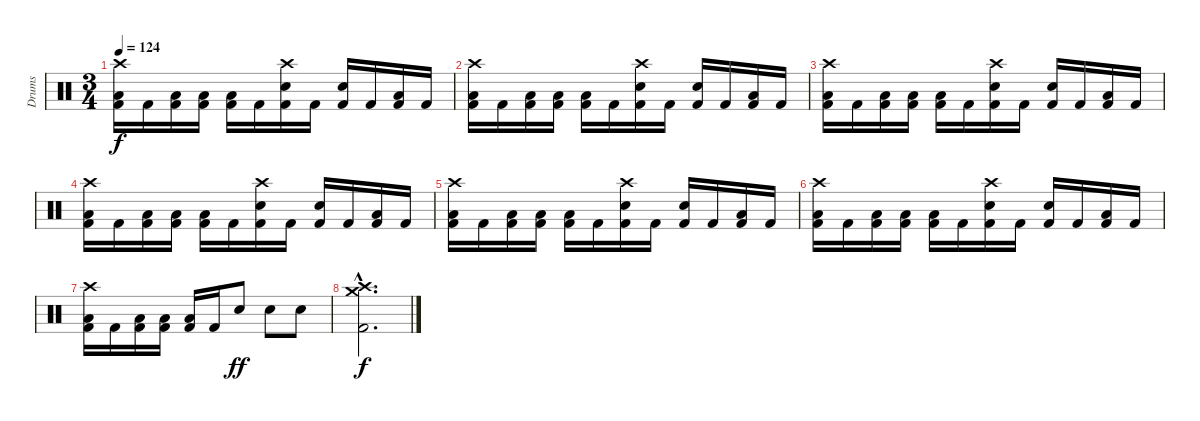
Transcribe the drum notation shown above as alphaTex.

\track ("Drums" "Drums") {instrument percussion}
\staff {score}
\articulation defaults
\ts (3 4)
\tempo 124
\clef neutral
\ks c
("Crash high (hit)" "Low Tom (hit)" "Kick (hit) 2").16{dy f} "Kick (hit) 2".16 ("Low Tom (hit)" "Kick (hit) 2").16 ("Low Tom (hit)" "Kick (hit) 2").16 ("Low Tom (hit)" "Kick (hit) 2").16 "Kick (hit) 2".16 ("Crash high (hit)" "Electric Snare (hit)" "Kick (hit) 2").16 "Kick (hit) 2".16 ("Electric Snare (hit)" "Kick (hit) 2").16 "Kick (hit) 2".16 ("Low Tom (hit)" "Kick (hit) 2").16 "Kick (hit) 2".16 |
("Crash high (hit)" "Low Tom (hit)" "Kick (hit) 2").16 "Kick (hit) 2".16 ("Low Tom (hit)" "Kick (hit) 2").16 ("Low Tom (hit)" "Kick (hit) 2").16 ("Low Tom (hit)" "Kick (hit) 2").16 "Kick (hit) 2".16 ("Crash high (hit)" "Electric Snare (hit)" "Kick (hit) 2").16 "Kick (hit) 2".16 ("Electric Snare (hit)" "Kick (hit) 2").16 "Kick (hit) 2".16 ("Low Tom (hit)" "Kick (hit) 2").16 "Kick (hit) 2".16 |
("Crash high (hit)" "Low Tom (hit)" "Kick (hit) 2").16 "Kick (hit) 2".16 ("Low Tom (hit)" "Kick (hit) 2").16 ("Low Tom (hit)" "Kick (hit) 2").16 ("Low Tom (hit)" "Kick (hit) 2").16 "Kick (hit) 2".16 ("Crash high (hit)" "Electric Snare (hit)" "Kick (hit) 2").16 "Kick (hit) 2".16 ("Electric Snare (hit)" "Kick (hit) 2").16 "Kick (hit) 2".16 ("Low Tom (hit)" "Kick (hit) 2").16 "Kick (hit) 2".16 |
("Crash high (hit)" "Low Tom (hit)" "Kick (hit) 2").16 "Kick (hit) 2".16 ("Low Tom (hit)" "Kick (hit) 2").16 ("Low Tom (hit)" "Kick (hit) 2").16 ("Low Tom (hit)" "Kick (hit) 2").16 "Kick (hit) 2".16 ("Crash high (hit)" "Electric Snare (hit)" "Kick (hit) 2").16 "Kick (hit) 2".16 ("Electric Snare (hit)" "Kick (hit) 2").16 "Kick (hit) 2".16 ("Low Tom (hit)" "Kick (hit) 2").16 "Kick (hit) 2".16 |
("Crash high (hit)" "Low Tom (hit)" "Kick (hit) 2").16 "Kick (hit) 2".16 ("Low Tom (hit)" "Kick (hit) 2").16 ("Low Tom (hit)" "Kick (hit) 2").16 ("Low Tom (hit)" "Kick (hit) 2").16 "Kick (hit) 2".16 ("Crash high (hit)" "Electric Snare (hit)" "Kick (hit) 2").16 "Kick (hit) 2".16 ("Electric Snare (hit)" "Kick (hit) 2").16 "Kick (hit) 2".16 ("Low Tom (hit)" "Kick (hit) 2").16 "Kick (hit) 2".16 |
("Crash high (hit)" "Low Tom (hit)" "Kick (hit) 2").16 "Kick (hit) 2".16 ("Low Tom (hit)" "Kick (hit) 2").16 ("Low Tom (hit)" "Kick (hit) 2").16 ("Low Tom (hit)" "Kick (hit) 2").16 "Kick (hit) 2".16 ("Crash high (hit)" "Electric Snare (hit)" "Kick (hit) 2").16 "Kick (hit) 2".16 ("Electric Snare (hit)" "Kick (hit) 2").16 "Kick (hit) 2".16 ("Low Tom (hit)" "Kick (hit) 2").16 "Kick (hit) 2".16 |
("Crash high (hit)" "Low Tom (hit)" "Kick (hit) 2").16 "Kick (hit) 2".16 ("Low Tom (hit)" "Kick (hit) 2").16 ("Low Tom (hit)" "Kick (hit) 2").16 ("Low Tom (hit)" "Kick (hit) 2").16 "Kick (hit) 2".16 "Electric Snare (hit)".8{dy ff} "Electric Snare (hit)".8 "Electric Snare (hit)".8 |
("Crash high (hit)"{hac} "Crash medium (hit)"{hac} "Kick (hit) 2"{hac}).2{d dy f}
